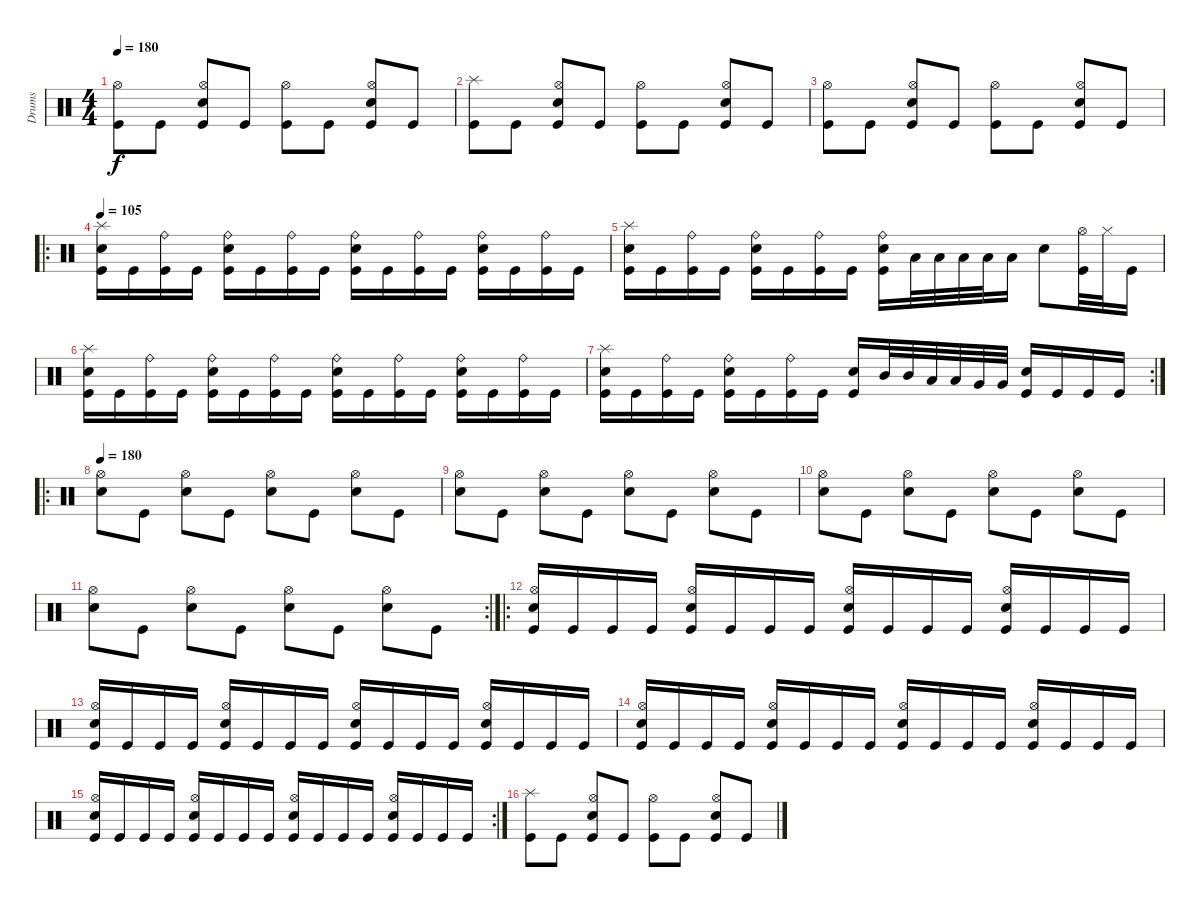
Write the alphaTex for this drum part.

\track ("Drums" "Drums") {instrument percussion}
\staff {score}
\articulation defaults
\ts (4 4)
\tempo 180
\clef neutral
\ks c
("Kick (hit)" "Hi-Hat (open)").8{dy f} "Kick (hit)".8 ("Kick (hit)" "Electric Snare (hit)" "Hi-Hat (open)").8 "Kick (hit)".8 ("Kick (hit)" "Hi-Hat (open)").8 "Kick (hit)".8 ("Kick (hit)" "Electric Snare (hit)" "Hi-Hat (open)").8 "Kick (hit)".8 |
("Kick (hit)" "Splash (hit)").8 "Kick (hit)".8 ("Kick (hit)" "Electric Snare (hit)" "Hi-Hat (open)").8 "Kick (hit)".8 ("Kick (hit)" "Hi-Hat (open)").8 "Kick (hit)".8 ("Kick (hit)" "Electric Snare (hit)" "Hi-Hat (open)").8 "Kick (hit)".8 |
("Kick (hit)" "Hi-Hat (open)").8 "Kick (hit)".8 ("Kick (hit)" "Electric Snare (hit)" "Hi-Hat (open)").8 "Kick (hit)".8 ("Kick (hit)" "Hi-Hat (open)").8 "Kick (hit)".8 ("Kick (hit)" "Electric Snare (hit)" "Hi-Hat (open)").8 "Kick (hit)".8 |
\ro
\tempo 105
("Kick (hit)" "Electric Snare (hit)" "Splash (hit)").16 "Kick (hit)".16 ("Kick (hit)" "Ride (bell)").16 "Kick (hit)".16 ("Kick (hit)" "Electric Snare (hit)" "Ride (bell)").16 "Kick (hit)".16 ("Kick (hit)" "Ride (bell)").16 "Kick (hit)".16 ("Kick (hit)" "Electric Snare (hit)" "Ride (bell)").16 "Kick (hit)".16 ("Kick (hit)" "Ride (bell)").16 "Kick (hit)".16 ("Kick (hit)" "Electric Snare (hit)" "Ride (bell)").16 "Kick (hit)".16 ("Kick (hit)" "Ride (bell)").16 "Kick (hit)".16 |
("Kick (hit)" "Electric Snare (hit)" "Splash (hit)").16 "Kick (hit)".16 ("Kick (hit)" "Ride (bell)").16 "Kick (hit)".16 ("Kick (hit)" "Electric Snare (hit)" "Ride (bell)").16 "Kick (hit)".16 ("Kick (hit)" "Ride (bell)").16 "Kick (hit)".16 ("Kick (hit)" "Electric Snare (hit)" "Ride (bell)").16 "Low Tom (hit)".32 "Low Tom (hit)".32 "Low Tom (hit)".32 "Low Tom (hit)".32 "Low Tom (hit)".16 "Electric Snare (hit)".8 ("Kick (hit)" "Hi-Hat (open)").32 "Hi-Hat (closed)".32 "Kick (hit)".16 |
("Kick (hit)" "Electric Snare (hit)" "Splash (hit)").16 "Kick (hit)".16 ("Kick (hit)" "Ride (bell)").16 "Kick (hit)".16 ("Kick (hit)" "Electric Snare (hit)" "Ride (bell)").16 "Kick (hit)".16 ("Kick (hit)" "Ride (bell)").16 "Kick (hit)".16 ("Kick (hit)" "Electric Snare (hit)" "Ride (bell)").16 "Kick (hit)".16 ("Kick (hit)" "Ride (bell)").16 "Kick (hit)".16 ("Kick (hit)" "Electric Snare (hit)" "Ride (bell)").16 "Kick (hit)".16 ("Kick (hit)" "Ride (bell)").16 "Kick (hit)".16 |
\rc 2
("Kick (hit)" "Electric Snare (hit)" "Splash (hit)").16 "Kick (hit)".16 ("Kick (hit)" "Ride (bell)").16 "Kick (hit)".16 ("Kick (hit)" "Electric Snare (hit)" "Ride (bell)").16 "Kick (hit)".16 ("Kick (hit)" "Ride (bell)").16 "Kick (hit)".16 ("Kick (hit)" "Electric Snare (hit)").16 "Mid Tom (hit)".32 "Mid Tom (hit)".32 "Low Tom (hit)".32 "Low Tom (hit)".32 "Very Low Tom (hit)".32 "Very Low Tom (hit)".32 ("Kick (hit)" "Electric Snare (hit)").16 "Kick (hit)".16 "Kick (hit)".16 "Kick (hit)".16 |
\ro
\tempo 180
("Electric Snare (hit)" "Hi-Hat (open)").8 "Kick (hit)".8 ("Electric Snare (hit)" "Hi-Hat (open)").8 "Kick (hit)".8 ("Electric Snare (hit)" "Hi-Hat (open)").8 "Kick (hit)".8 ("Electric Snare (hit)" "Hi-Hat (open)").8 "Kick (hit)".8 |
("Electric Snare (hit)" "Hi-Hat (open)").8 "Kick (hit)".8 ("Electric Snare (hit)" "Hi-Hat (open)").8 "Kick (hit)".8 ("Electric Snare (hit)" "Hi-Hat (open)").8 "Kick (hit)".8 ("Electric Snare (hit)" "Hi-Hat (open)").8 "Kick (hit)".8 |
("Electric Snare (hit)" "Hi-Hat (open)").8 "Kick (hit)".8 ("Electric Snare (hit)" "Hi-Hat (open)").8 "Kick (hit)".8 ("Electric Snare (hit)" "Hi-Hat (open)").8 "Kick (hit)".8 ("Electric Snare (hit)" "Hi-Hat (open)").8 "Kick (hit)".8 |
\rc 2
("Electric Snare (hit)" "Hi-Hat (open)").8 "Kick (hit)".8 ("Electric Snare (hit)" "Hi-Hat (open)").8 "Kick (hit)".8 ("Electric Snare (hit)" "Hi-Hat (open)").8 "Kick (hit)".8 ("Electric Snare (hit)" "Hi-Hat (open)").8 "Kick (hit)".8 |
\ro
("Kick (hit)" "Electric Snare (hit)" "Hi-Hat (open)").16 "Kick (hit)".16 "Kick (hit)".16 "Kick (hit)".16 ("Kick (hit)" "Electric Snare (hit)" "Hi-Hat (open)").16 "Kick (hit)".16 "Kick (hit)".16 "Kick (hit)".16 ("Kick (hit)" "Electric Snare (hit)" "Hi-Hat (open)").16 "Kick (hit)".16 "Kick (hit)".16 "Kick (hit)".16 ("Kick (hit)" "Electric Snare (hit)" "Hi-Hat (open)").16 "Kick (hit)".16 "Kick (hit)".16 "Kick (hit)".16 |
("Kick (hit)" "Electric Snare (hit)" "Hi-Hat (open)").16 "Kick (hit)".16 "Kick (hit)".16 "Kick (hit)".16 ("Kick (hit)" "Electric Snare (hit)" "Hi-Hat (open)").16 "Kick (hit)".16 "Kick (hit)".16 "Kick (hit)".16 ("Kick (hit)" "Electric Snare (hit)" "Hi-Hat (open)").16 "Kick (hit)".16 "Kick (hit)".16 "Kick (hit)".16 ("Kick (hit)" "Electric Snare (hit)" "Hi-Hat (open)").16 "Kick (hit)".16 "Kick (hit)".16 "Kick (hit)".16 |
("Kick (hit)" "Electric Snare (hit)" "Hi-Hat (open)").16 "Kick (hit)".16 "Kick (hit)".16 "Kick (hit)".16 ("Kick (hit)" "Electric Snare (hit)" "Hi-Hat (open)").16 "Kick (hit)".16 "Kick (hit)".16 "Kick (hit)".16 ("Kick (hit)" "Electric Snare (hit)" "Hi-Hat (open)").16 "Kick (hit)".16 "Kick (hit)".16 "Kick (hit)".16 ("Kick (hit)" "Electric Snare (hit)" "Hi-Hat (open)").16 "Kick (hit)".16 "Kick (hit)".16 "Kick (hit)".16 |
\rc 2
("Kick (hit)" "Electric Snare (hit)" "Hi-Hat (open)").16 "Kick (hit)".16 "Kick (hit)".16 "Kick (hit)".16 ("Kick (hit)" "Electric Snare (hit)" "Hi-Hat (open)").16 "Kick (hit)".16 "Kick (hit)".16 "Kick (hit)".16 ("Kick (hit)" "Electric Snare (hit)" "Hi-Hat (open)").16 "Kick (hit)".16 "Kick (hit)".16 "Kick (hit)".16 ("Kick (hit)" "Electric Snare (hit)" "Hi-Hat (open)").16 "Kick (hit)".16 "Kick (hit)".16 "Kick (hit)".16 |
("Kick (hit)" "Splash (hit)").8 "Kick (hit)".8 ("Kick (hit)" "Electric Snare (hit)" "Hi-Hat (open)").8 "Kick (hit)".8 ("Kick (hit)" "Hi-Hat (open)").8 "Kick (hit)".8 ("Kick (hit)" "Electric Snare (hit)" "Hi-Hat (open)").8 "Kick (hit)".8
